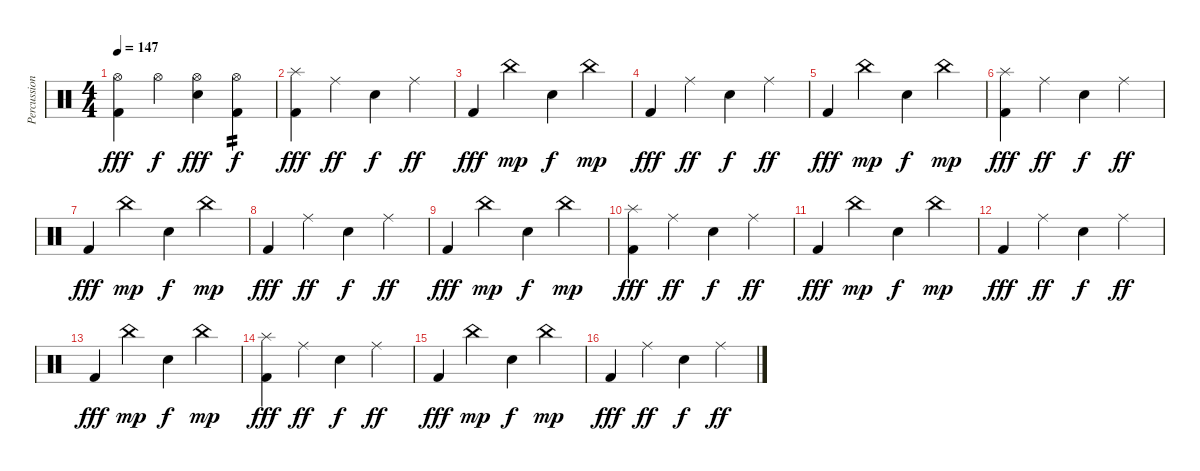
\track ("Percussion" "Percussion") {instrument percussion}
\staff
\articulation defaults
\ts (4 4)
\tempo 147
\clef neutral
\ks c
("Hi-Hat (open)" "Kick (hit) 2").4{dy fff} "Hi-Hat (open)".4{dy f} ("Hi-Hat (open)" "Electric Snare (hit)").4{dy fff} ("Hi-Hat (open)" "Kick (hit) 2").4{tp 2 dy f} |
("Splash (hit)" "Kick (hit) 2").4{dy fff} "Ride (middle)".4{dy ff} "Electric Snare (hit)".4{dy f} "Ride (middle)".4{dy ff} |
"Kick (hit) 2".4{dy fff} "China (hit)".4{dy mp} "Electric Snare (hit)".4{dy f} "China (hit)".4{dy mp} |
"Kick (hit) 2".4{dy fff} "Ride (middle)".4{dy ff} "Electric Snare (hit)".4{dy f} "Ride (middle)".4{dy ff} |
"Kick (hit) 2".4{dy fff} "China (hit)".4{dy mp} "Electric Snare (hit)".4{dy f} "China (hit)".4{dy mp} |
("Splash (hit)" "Kick (hit) 2").4{dy fff} "Ride (middle)".4{dy ff} "Electric Snare (hit)".4{dy f} "Ride (middle)".4{dy ff} |
"Kick (hit) 2".4{dy fff} "China (hit)".4{dy mp} "Electric Snare (hit)".4{dy f} "China (hit)".4{dy mp} |
"Kick (hit) 2".4{dy fff} "Ride (middle)".4{dy ff} "Electric Snare (hit)".4{dy f} "Ride (middle)".4{dy ff} |
"Kick (hit) 2".4{dy fff} "China (hit)".4{dy mp} "Electric Snare (hit)".4{dy f} "China (hit)".4{dy mp} |
("Splash (hit)" "Kick (hit) 2").4{dy fff} "Ride (middle)".4{dy ff} "Electric Snare (hit)".4{dy f} "Ride (middle)".4{dy ff} |
"Kick (hit) 2".4{dy fff} "China (hit)".4{dy mp} "Electric Snare (hit)".4{dy f} "China (hit)".4{dy mp} |
"Kick (hit) 2".4{dy fff} "Ride (middle)".4{dy ff} "Electric Snare (hit)".4{dy f} "Ride (middle)".4{dy ff} |
"Kick (hit) 2".4{dy fff} "China (hit)".4{dy mp} "Electric Snare (hit)".4{dy f} "China (hit)".4{dy mp} |
("Splash (hit)" "Kick (hit) 2").4{dy fff} "Ride (middle)".4{dy ff} "Electric Snare (hit)".4{dy f} "Ride (middle)".4{dy ff} |
"Kick (hit) 2".4{dy fff} "China (hit)".4{dy mp} "Electric Snare (hit)".4{dy f} "China (hit)".4{dy mp} |
"Kick (hit) 2".4{dy fff} "Ride (middle)".4{dy ff} "Electric Snare (hit)".4{dy f} "Ride (middle)".4{dy ff}
